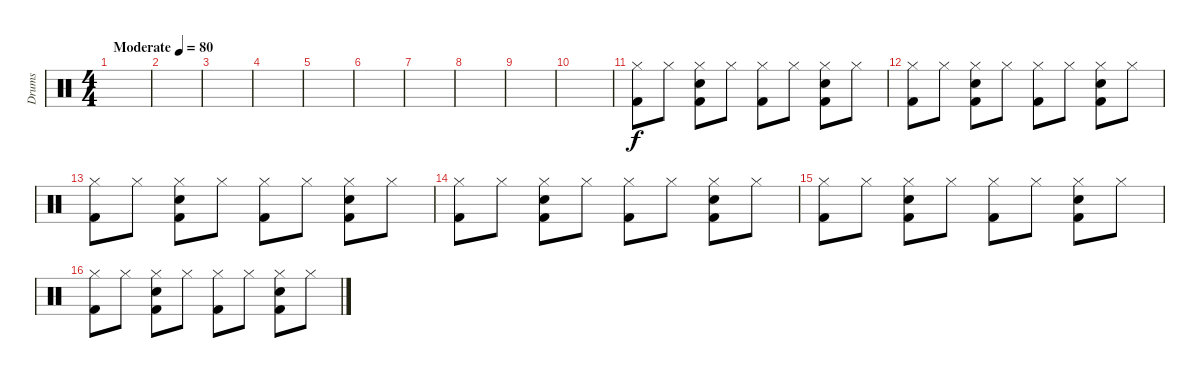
\track ("Drums" "Drums") {instrument percussion}
\staff {score}
\articulation defaults
\ts (4 4)
\tempo (80 "Moderate")
\clef neutral
\ks c
|
|
|
|
|
|
|
|
|
|
("Hi-Hat (closed)" "Kick (hit) 2").8 "Hi-Hat (closed)".8 ("Hi-Hat (closed)" "Electric Snare (hit)" "Kick (hit) 2").8 "Hi-Hat (closed)".8 ("Hi-Hat (closed)" "Kick (hit) 2").8 "Hi-Hat (closed)".8 ("Hi-Hat (closed)" "Electric Snare (hit)" "Kick (hit) 2").8 "Hi-Hat (closed)".8 |
("Hi-Hat (closed)" "Kick (hit) 2").8 "Hi-Hat (closed)".8 ("Hi-Hat (closed)" "Electric Snare (hit)" "Kick (hit) 2").8 "Hi-Hat (closed)".8 ("Hi-Hat (closed)" "Kick (hit) 2").8 "Hi-Hat (closed)".8 ("Hi-Hat (closed)" "Electric Snare (hit)" "Kick (hit) 2").8 "Hi-Hat (closed)".8 |
("Hi-Hat (closed)" "Kick (hit) 2").8 "Hi-Hat (closed)".8 ("Hi-Hat (closed)" "Electric Snare (hit)" "Kick (hit) 2").8 "Hi-Hat (closed)".8 ("Hi-Hat (closed)" "Kick (hit) 2").8 "Hi-Hat (closed)".8 ("Hi-Hat (closed)" "Electric Snare (hit)" "Kick (hit) 2").8 "Hi-Hat (closed)".8 |
("Hi-Hat (closed)" "Kick (hit) 2").8 "Hi-Hat (closed)".8 ("Hi-Hat (closed)" "Electric Snare (hit)" "Kick (hit) 2").8 "Hi-Hat (closed)".8 ("Hi-Hat (closed)" "Kick (hit) 2").8 "Hi-Hat (closed)".8 ("Hi-Hat (closed)" "Electric Snare (hit)" "Kick (hit) 2").8 "Hi-Hat (closed)".8 |
("Hi-Hat (closed)" "Kick (hit) 2").8 "Hi-Hat (closed)".8 ("Hi-Hat (closed)" "Electric Snare (hit)" "Kick (hit) 2").8 "Hi-Hat (closed)".8 ("Hi-Hat (closed)" "Kick (hit) 2").8 "Hi-Hat (closed)".8 ("Hi-Hat (closed)" "Electric Snare (hit)" "Kick (hit) 2").8 "Hi-Hat (closed)".8 |
("Hi-Hat (closed)" "Kick (hit) 2").8 "Hi-Hat (closed)".8 ("Hi-Hat (closed)" "Electric Snare (hit)" "Kick (hit) 2").8 "Hi-Hat (closed)".8 ("Hi-Hat (closed)" "Kick (hit) 2").8 "Hi-Hat (closed)".8 ("Hi-Hat (closed)" "Electric Snare (hit)" "Kick (hit) 2").8 "Hi-Hat (closed)".8
